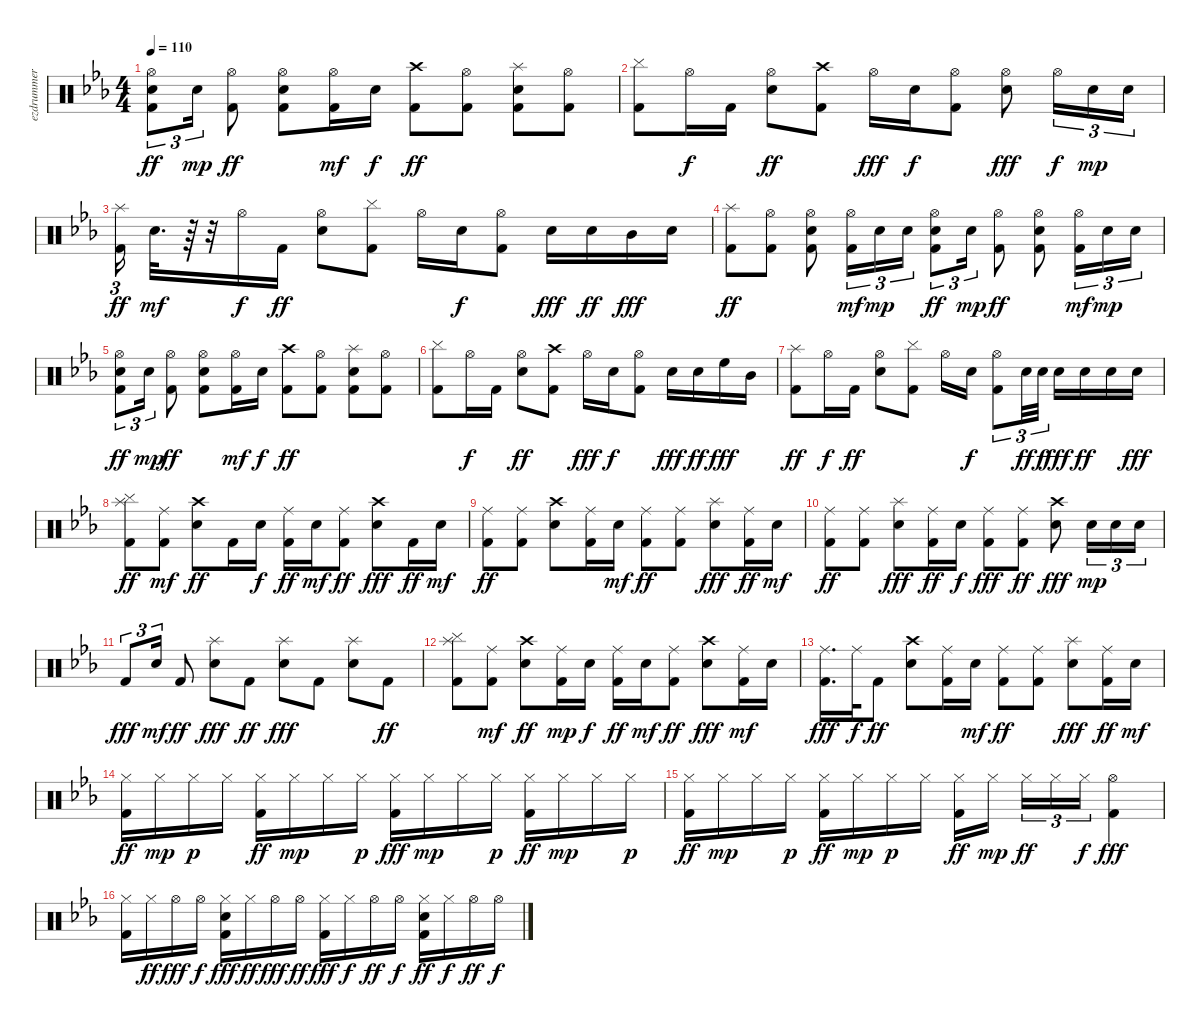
\track ("ezdrummer 03" "ezdrummer ") {instrument percussion}
\staff {score}
\articulation defaults
\ts (4 4)
\tempo 110
\clef neutral
\ks cminor
("Kick (hit) 2" "Snare (hit) 2" "Hi-Hat (open)").8{tu (3 2) dy ff} "Snare (hit) 2".16{tu (3 2) dy mp} ("Kick (hit) 2" "Hi-Hat (open)").8{dy ff} ("Kick (hit) 2" "Snare (hit) 2" "Hi-Hat (open)").8 ("Kick (hit) 2" "Hi-Hat (open)").16{dy mf} "Snare (hit) 2".16{dy f} ("Kick (hit) 2" "Crash high (hit)").8{dy ff} ("Kick (hit) 2" "Hi-Hat (open)").8 ("Kick (hit) 2" "Snare (hit) 2" "Splash (hit)").8 ("Kick (hit) 2" "Hi-Hat (open)").8 |
("Cymbal (hit)" "Kick (hit) 2").8 "Hi-Hat (open)".16{dy f} "Kick (hit) 2".16 ("Snare (hit) 2" "Hi-Hat (open)").8{dy ff} ("Kick (hit) 2" "Crash high (hit)").8 "Hi-Hat (open)".16{dy fff} "Snare (hit) 2".16{dy f} ("Kick (hit) 2" "Hi-Hat (open)").8 ("Snare (hit) 2" "Hi-Hat (open)").8{dy fff} "Hi-Hat (open)".16{tu (3 2) dy f} "Snare (hit) 2".16{tu (3 2) dy mp} "Snare (hit) 2".16{tu (3 2)} |
("Kick (hit) 2" "Splash (hit)").16{tu (3 2) dy ff} "Snare (hit) 2".32{d dy mf} r.64 r.32 "Hi-Hat (open)".16{dy f} "Kick (hit) 2".16{dy ff} ("Snare (hit) 2" "Hi-Hat (open)").8 ("Cymbal (hit)" "Kick (hit) 2").8 "Hi-Hat (open)".16 "Snare (hit) 2".16{dy f} ("Kick (hit) 2" "Hi-Hat (open)").8 "Snare (hit) 2".16{dy fff} "Snare (hit) 2".16{dy ff} "Mid Tom (hit)".16{dy fff} "Snare (hit) 2".16 |
("Kick (hit) 2" "Splash (hit)").8{dy ff} ("Kick (hit) 2" "Hi-Hat (open)").8 ("Kick (hit) 2" "Snare (hit) 2" "Hi-Hat (open)").8 ("Kick (hit) 2" "Hi-Hat (open)").16{tu (3 2) dy mf} "Snare (hit) 2".16{tu (3 2) dy mp} "Snare (hit) 2".16{tu (3 2)} ("Kick (hit) 2" "Snare (hit) 2" "Hi-Hat (open)").8{tu (3 2) dy ff} "Snare (hit) 2".16{tu (3 2) dy mp} ("Kick (hit) 2" "Hi-Hat (open)").8{dy ff} ("Kick (hit) 2" "Snare (hit) 2" "Hi-Hat (open)").8 ("Kick (hit) 2" "Hi-Hat (open)").16{tu (3 2) dy mf} "Snare (hit) 2".16{tu (3 2) dy mp} "Snare (hit) 2".16{tu (3 2)} |
("Kick (hit) 2" "Snare (hit) 2" "Hi-Hat (open)").8{tu (3 2) dy ff} "Snare (hit) 2".16{tu (3 2) dy mp} ("Kick (hit) 2" "Hi-Hat (open)").8{dy ff} ("Kick (hit) 2" "Snare (hit) 2" "Hi-Hat (open)").8 ("Kick (hit) 2" "Hi-Hat (open)").16{dy mf} "Snare (hit) 2".16{dy f} ("Kick (hit) 2" "Crash high (hit)").8{dy ff} ("Kick (hit) 2" "Hi-Hat (open)").8 ("Kick (hit) 2" "Snare (hit) 2" "Splash (hit)").8 ("Kick (hit) 2" "Hi-Hat (open)").8 |
("Cymbal (hit)" "Kick (hit) 2").8 "Hi-Hat (open)".16{dy f} "Kick (hit) 2".16 ("Snare (hit) 2" "Hi-Hat (open)").8{dy ff} ("Kick (hit) 2" "Crash high (hit)").8 "Hi-Hat (open)".16{dy fff} "Snare (hit) 2".16{dy f} ("Kick (hit) 2" "Hi-Hat (open)").8 "Snare (hit) 2".16{dy fff} "Snare (hit) 2".16{dy ff} "High Floor Tom (hit)".16{dy fff} "Mid Tom (hit)".16 |
("Kick (hit) 2" "Splash (hit)").8{dy ff} "Hi-Hat (open)".16{dy f} "Kick (hit) 2".16{dy ff} ("Snare (hit) 2" "Hi-Hat (open)").8 ("Cymbal (hit)" "Kick (hit) 2").8 "Hi-Hat (open)".16 "Snare (hit) 2".16{dy f} ("Kick (hit) 2" "Hi-Hat (open)").8{tu (3 2)} "Snare (hit) 2".32{tu (3 2) dy ff} "Snare (hit) 2".32{tu (3 2) dy f} "Snare (hit) 2".16{dy fff} "Snare (hit) 2".16{dy ff} "Snare (hit) 2".16 "Snare (hit) 2".16{dy fff} |
("Cymbal (hit)" "Kick (hit) 2" "Splash (hit)").8{dy ff} ("Kick (hit) 2" "Ride (middle)").8{dy mf} ("Snare (hit) 2" "Crash high (hit)").8{dy ff} "Kick (hit) 2".16 "Snare (hit) 2".16{dy f} ("Kick (hit) 2" "Ride (middle)").16{dy ff} "Snare (hit) 2".16{dy mf} ("Kick (hit) 2" "Ride (middle)").8{dy ff} ("Snare (hit) 2" "Crash high (hit)").8{dy fff} "Kick (hit) 2".16{dy ff} "Snare (hit) 2".16{dy mf} |
("Kick (hit) 2" "Ride (middle)").8{dy ff} ("Kick (hit) 2" "Ride (middle)").8 ("Snare (hit) 2" "Crash high (hit)").8 ("Kick (hit) 2" "Ride (middle)").16 "Snare (hit) 2".16{dy mf} ("Kick (hit) 2" "Ride (middle)").8{dy ff} ("Kick (hit) 2" "Ride (middle)").8 ("Snare (hit) 2" "Splash (hit)").8{dy fff} ("Kick (hit) 2" "Ride (middle)").16{dy ff} "Snare (hit) 2".16{dy mf} |
("Kick (hit) 2" "Ride (middle)").8{dy ff} ("Kick (hit) 2" "Ride (middle)").8 ("Snare (hit) 2" "Splash (hit)").8{dy fff} ("Kick (hit) 2" "Ride (middle)").16{dy ff} "Snare (hit) 2".16{dy f} ("Kick (hit) 2" "Ride (middle)").8{dy fff} ("Kick (hit) 2" "Ride (middle)").8{dy ff} ("Snare (hit) 2" "Crash high (hit)").8{dy fff} "Snare (hit) 2".16{tu (3 2) dy mp} "Snare (hit) 2".16{tu (3 2)} "Snare (hit) 2".16{tu (3 2)} |
"Kick (hit) 2".8{tu (3 2) dy fff} "Snare (hit) 2".16{tu (3 2) dy mf} "Kick (hit) 2".8{dy ff} ("Snare (hit) 2" "Splash (hit)").8{dy fff} "Kick (hit) 2".8{dy ff} ("Snare (hit) 2" "Splash (hit)").8{dy fff} "Kick (hit) 2".8 ("Snare (hit) 2" "Splash (hit)").8 "Kick (hit) 2".8{dy ff} |
("Cymbal (hit)" "Kick (hit) 2" "Splash (hit)").8 ("Kick (hit) 2" "Ride (middle)").8{dy mf} ("Snare (hit) 2" "Crash high (hit)").8{dy ff} ("Kick (hit) 2" "Ride (middle)").16{dy mp} "Snare (hit) 2".16{dy f} ("Kick (hit) 2" "Ride (middle)").16{dy ff} "Snare (hit) 2".16{dy mf} ("Kick (hit) 2" "Ride (middle)").8{dy ff} ("Snare (hit) 2" "Crash high (hit)").8{dy fff} ("Kick (hit) 2" "Ride (middle)").16{dy mf} "Snare (hit) 2".16 |
("Ride (middle)" "Kick (hit) 2").16{d dy fff} "Ride (middle)".32{dy f} "Kick (hit) 2".8{dy ff} ("Snare (hit) 2" "Crash high (hit)").8 ("Kick (hit) 2" "Ride (middle)").16 "Snare (hit) 2".16{dy mf} ("Kick (hit) 2" "Ride (middle)").8{dy ff} ("Kick (hit) 2" "Ride (middle)").8 ("Snare (hit) 2" "Splash (hit)").8{dy fff} ("Kick (hit) 2" "Ride (middle)").16{dy ff} "Snare (hit) 2".16{dy mf} |
("Kick (hit) 2" "Hi-Hat (closed)").16{dy ff} "Hi-Hat (closed)".16{dy mp} "Hi-Hat (closed)".16{dy p} "Hi-Hat (closed)".16 ("Kick (hit) 2" "Hi-Hat (closed)").16{dy ff} "Hi-Hat (closed)".16{dy mp} "Hi-Hat (closed)".16 "Hi-Hat (closed)".16{dy p} ("Kick (hit) 2" "Hi-Hat (closed)").16{dy fff} "Hi-Hat (closed)".16{dy mp} "Hi-Hat (closed)".16 "Hi-Hat (closed)".16{dy p} ("Kick (hit) 2" "Hi-Hat (closed)").16{dy ff} "Hi-Hat (closed)".16{dy mp} "Hi-Hat (closed)".16 "Hi-Hat (closed)".16{dy p} |
("Kick (hit) 2" "Hi-Hat (closed)").16{dy ff} "Hi-Hat (closed)".16{dy mp} "Hi-Hat (closed)".16 "Hi-Hat (closed)".16{dy p} ("Kick (hit) 2" "Hi-Hat (closed)").16{dy ff} "Hi-Hat (closed)".16{dy mp} "Hi-Hat (closed)".16{dy p} "Hi-Hat (closed)".16 ("Kick (hit) 2" "Hi-Hat (closed)").16{dy ff} "Hi-Hat (closed)".16{dy mp} "Hi-Hat (closed)".16{tu (3 2) dy ff} "Hi-Hat (closed)".16{tu (3 2)} "Hi-Hat (closed)".16{tu (3 2) dy f} ("Kick (hit) 2" "Hi-Hat (open)").4{dy fff} |
("Kick (hit) 2" "Hi-Hat (closed)").16 "Hi-Hat (closed)".16{dy ff} "Hi-Hat (open)".16{dy fff} "Hi-Hat (open)".16{dy f} ("Kick (hit) 2" "Snare (hit) 2" "Hi-Hat (closed)").16{dy fff} "Hi-Hat (closed)".16{dy ff} "Hi-Hat (open)".16{dy fff} "Hi-Hat (open)".16{dy ff} ("Kick (hit) 2" "Hi-Hat (closed)").16{dy fff} "Hi-Hat (closed)".16{dy f} "Hi-Hat (open)".16{dy ff} "Hi-Hat (open)".16{dy f} ("Kick (hit) 2" "Snare (hit) 2" "Hi-Hat (closed)").16{dy ff} "Hi-Hat (closed)".16{dy f} "Hi-Hat (open)".16{dy ff} "Hi-Hat (open)".16{dy f}
